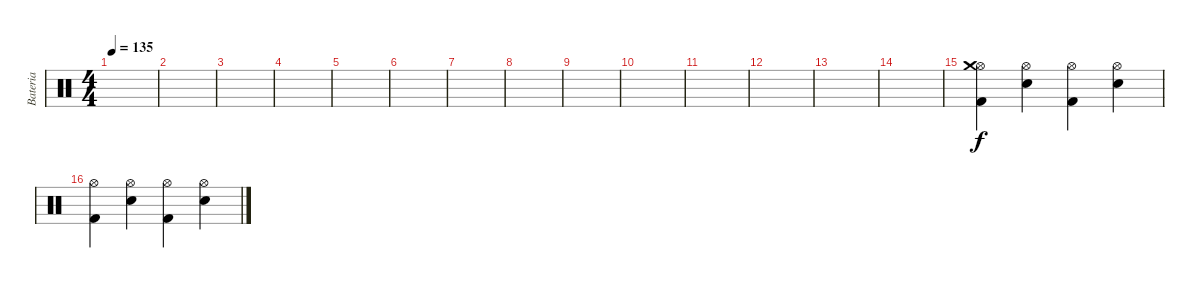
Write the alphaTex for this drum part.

\track ("Bateria" "Bateria") {instrument percussion}
\staff {score}
\articulation defaults
\ts (4 4)
\tempo 135
\clef neutral
\ks c
|
|
|
|
|
|
|
|
|
|
|
|
|
|
("Kick (hit) 2" "Hi-Hat (open)" "Crash medium (hit)").4 ("Electric Snare (hit)" "Hi-Hat (open)").4 ("Kick (hit) 2" "Hi-Hat (open)").4 ("Electric Snare (hit)" "Hi-Hat (open)").4 |
("Kick (hit) 2" "Hi-Hat (open)").4 ("Electric Snare (hit)" "Hi-Hat (open)").4 ("Kick (hit) 2" "Hi-Hat (open)").4 ("Electric Snare (hit)" "Hi-Hat (open)").4
